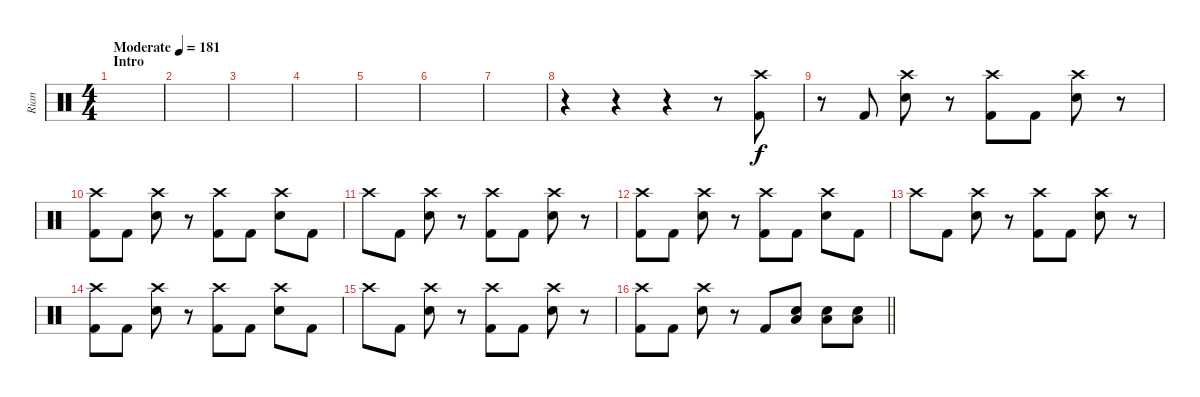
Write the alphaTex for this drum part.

\track ("Rian" "Rian") {instrument percussion bank 255}
\staff {score}
\articulation defaults
\ts (4 4)
\section ("" "Intro")
\tempo (181 "Moderate")
\clef neutral
\ks c
|
|
|
|
|
|
|
r.4 r.4 r.4 r.8 ("Crash high (hit)" "Kick (hit) 2").8 |
r.8 "Kick (hit) 2".8 ("Crash high (hit)" "Electric Snare (hit)").8 r.8 ("Crash high (hit)" "Kick (hit) 2").8 "Kick (hit) 2".8 ("Crash high (hit)" "Electric Snare (hit)").8 r.8 |
("Crash high (hit)" "Kick (hit) 2").8 "Kick (hit) 2".8 ("Crash high (hit)" "Electric Snare (hit)").8 r.8 ("Crash high (hit)" "Kick (hit) 2").8 "Kick (hit) 2".8 ("Crash high (hit)" "Electric Snare (hit)").8 "Kick (hit) 2".8 |
"Crash high (hit)".8 "Kick (hit) 2".8 ("Crash high (hit)" "Electric Snare (hit)").8 r.8 ("Crash high (hit)" "Kick (hit) 2").8 "Kick (hit) 2".8 ("Crash high (hit)" "Electric Snare (hit)").8 r.8 |
("Crash high (hit)" "Kick (hit) 2").8 "Kick (hit) 2".8 ("Crash high (hit)" "Electric Snare (hit)").8 r.8 ("Crash high (hit)" "Kick (hit) 2").8 "Kick (hit) 2".8 ("Crash high (hit)" "Electric Snare (hit)").8 "Kick (hit) 2".8 |
"Crash high (hit)".8 "Kick (hit) 2".8 ("Crash high (hit)" "Electric Snare (hit)").8 r.8 ("Crash high (hit)" "Kick (hit) 2").8 "Kick (hit) 2".8 ("Crash high (hit)" "Electric Snare (hit)").8 r.8 |
("Crash high (hit)" "Kick (hit) 2").8 "Kick (hit) 2".8 ("Crash high (hit)" "Electric Snare (hit)").8 r.8 ("Crash high (hit)" "Kick (hit) 2").8 "Kick (hit) 2".8 ("Crash high (hit)" "Electric Snare (hit)").8 "Kick (hit) 2".8 |
"Crash high (hit)".8 "Kick (hit) 2".8 ("Crash high (hit)" "Electric Snare (hit)").8 r.8 ("Crash high (hit)" "Kick (hit) 2").8 "Kick (hit) 2".8 ("Crash high (hit)" "Electric Snare (hit)").8 r.8 |
\barLineRight lightlight
("Crash high (hit)" "Kick (hit) 2").8 "Kick (hit) 2".8 ("Crash high (hit)" "Electric Snare (hit)").8 r.8 "Kick (hit) 2".8 ("Electric Snare (hit)" "Low Tom (hit)").8 ("Electric Snare (hit)" "Low Tom (hit)").8 ("Electric Snare (hit)" "Low Tom (hit)").8
